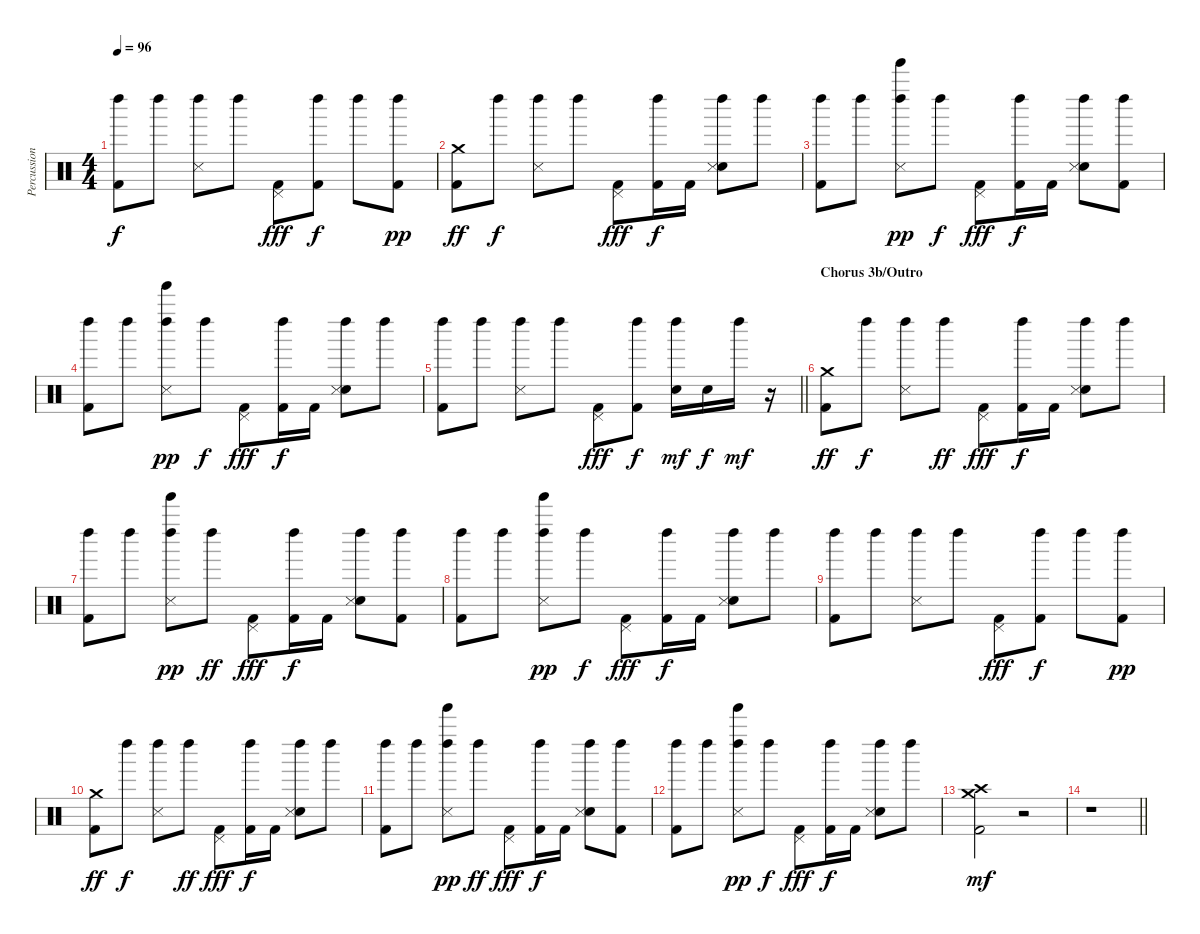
\track ("Percussion" "Percussion") {instrument percussion}
\staff {score}
\articulation defaults
\ts (4 4)
\tempo 96
\clef neutral
\ks c
("Left Maraca (hit)" "Kick (hit) 2").8{dy f} "Left Maraca (hit)".8 ("Left Maraca (hit)" "Snare (side stick) 3").8 "Left Maraca (hit)".8 ("Pedal Hi-Hat (hit)" "Kick (hit) 2").8{dy fff} ("Left Maraca (hit)" "Kick (hit) 2").8{dy f} "Left Maraca (hit)".8 ("Left Maraca (hit)" "Kick (hit) 2").8{dy pp} |
("Crash medium (hit)" "Kick (hit) 2").8{dy ff} "Left Maraca (hit)".8{dy f} ("Left Maraca (hit)" "Snare (side stick) 3").8 "Left Maraca (hit)".8 ("Pedal Hi-Hat (hit)" "Kick (hit) 2").8{dy fff} ("Left Maraca (hit)" "Kick (hit) 2").16{dy f} "Kick (hit) 2".16 ("Left Maraca (hit)" "Hand Clap (hit)" "Snare (side stick) 3").8 "Left Maraca (hit)".8 |
("Left Maraca (hit)" "Kick (hit) 2").8 "Left Maraca (hit)".8 ("Left Maraca (hit)" "Tinkle Bell (hit)" "Snare (side stick) 3").8{dy pp} "Left Maraca (hit)".8{dy f} ("Pedal Hi-Hat (hit)" "Kick (hit) 2").8{dy fff} ("Left Maraca (hit)" "Kick (hit) 2").16{dy f} "Kick (hit) 2".16 ("Left Maraca (hit)" "Hand Clap (hit)" "Snare (side stick) 3").8 ("Left Maraca (hit)" "Kick (hit) 2").8 |
("Left Maraca (hit)" "Kick (hit) 2").8 "Left Maraca (hit)".8 ("Left Maraca (hit)" "Tinkle Bell (hit)" "Snare (side stick) 3").8{dy pp} "Left Maraca (hit)".8{dy f} ("Pedal Hi-Hat (hit)" "Kick (hit) 2").8{dy fff} ("Left Maraca (hit)" "Kick (hit) 2").16{dy f} "Kick (hit) 2".16 ("Left Maraca (hit)" "Hand Clap (hit)" "Snare (side stick) 3").8 "Left Maraca (hit)".8 |
\barLineRight lightlight
("Left Maraca (hit)" "Kick (hit) 2").8 "Left Maraca (hit)".8 ("Left Maraca (hit)" "Snare (side stick) 3").8 "Left Maraca (hit)".8 ("Pedal Hi-Hat (hit)" "Kick (hit) 2").8{dy fff} ("Left Maraca (hit)" "Kick (hit) 2").8{dy f} ("Left Maraca (hit)" "Snare (hit) 2").16{dy mf volume 10} "Electric Snare (hit)".16{dy f} "Left Maraca (hit)".16{dy mf} r.16 |
\section ("" "Chorus 3b/Outro")
("Crash medium (hit)" "Kick (hit) 2").8{dy ff} "Left Maraca (hit)".8{dy f} ("Left Maraca (hit)" "Snare (side stick) 3").8 "Left Maraca (hit)".8{dy ff} ("Pedal Hi-Hat (hit)" "Kick (hit) 2").8{dy fff} ("Left Maraca (hit)" "Kick (hit) 2").16{dy f} "Kick (hit) 2".16 ("Left Maraca (hit)" "Hand Clap (hit)" "Snare (side stick) 3").8 "Left Maraca (hit)".8 |
("Left Maraca (hit)" "Kick (hit) 2").8 "Left Maraca (hit)".8 ("Left Maraca (hit)" "Tinkle Bell (hit)" "Snare (side stick) 3").8{dy pp} "Left Maraca (hit)".8{dy ff} ("Pedal Hi-Hat (hit)" "Kick (hit) 2").8{dy fff} ("Left Maraca (hit)" "Kick (hit) 2").16{dy f} "Kick (hit) 2".16 ("Left Maraca (hit)" "Hand Clap (hit)" "Snare (side stick) 3").8 ("Left Maraca (hit)" "Kick (hit) 2").8 |
("Left Maraca (hit)" "Kick (hit) 2").8 "Left Maraca (hit)".8 ("Left Maraca (hit)" "Tinkle Bell (hit)" "Snare (side stick) 3").8{dy pp} "Left Maraca (hit)".8{dy f} ("Pedal Hi-Hat (hit)" "Kick (hit) 2").8{dy fff} ("Left Maraca (hit)" "Kick (hit) 2").16{dy f} "Kick (hit) 2".16 ("Left Maraca (hit)" "Hand Clap (hit)" "Snare (side stick) 3").8 "Left Maraca (hit)".8 |
("Left Maraca (hit)" "Kick (hit) 2").8 "Left Maraca (hit)".8 ("Left Maraca (hit)" "Snare (side stick) 3").8 "Left Maraca (hit)".8 ("Pedal Hi-Hat (hit)" "Kick (hit) 2").8{dy fff} ("Left Maraca (hit)" "Kick (hit) 2").8{dy f} "Left Maraca (hit)".8 ("Left Maraca (hit)" "Kick (hit) 2").8{dy pp} |
("Crash medium (hit)" "Kick (hit) 2").8{dy ff} "Left Maraca (hit)".8{dy f} ("Left Maraca (hit)" "Snare (side stick) 3").8 "Left Maraca (hit)".8{dy ff} ("Pedal Hi-Hat (hit)" "Kick (hit) 2").8{dy fff} ("Left Maraca (hit)" "Kick (hit) 2").16{dy f} "Kick (hit) 2".16 ("Left Maraca (hit)" "Hand Clap (hit)" "Snare (side stick) 3").8 "Left Maraca (hit)".8 |
("Left Maraca (hit)" "Kick (hit) 2").8 "Left Maraca (hit)".8 ("Left Maraca (hit)" "Tinkle Bell (hit)" "Snare (side stick) 3").8{dy pp} "Left Maraca (hit)".8{dy ff} ("Pedal Hi-Hat (hit)" "Kick (hit) 2").8{dy fff} ("Left Maraca (hit)" "Kick (hit) 2").16{dy f} "Kick (hit) 2".16 ("Left Maraca (hit)" "Hand Clap (hit)" "Snare (side stick) 3").8 ("Left Maraca (hit)" "Kick (hit) 2").8 |
("Left Maraca (hit)" "Kick (hit) 2").8 "Left Maraca (hit)".8 ("Left Maraca (hit)" "Tinkle Bell (hit)" "Snare (side stick) 3").8{dy pp} "Left Maraca (hit)".8{dy f} ("Pedal Hi-Hat (hit)" "Kick (hit) 2").8{dy fff} ("Left Maraca (hit)" "Kick (hit) 2").16{dy f} "Kick (hit) 2".16 ("Left Maraca (hit)" "Hand Clap (hit)" "Snare (side stick) 3").8 "Left Maraca (hit)".8 |
("Crash medium (hit)" "Crash high (hit)" "Kick (hit) 2").2{dy mf} r.2 |
\barLineRight lightlight
r.1
